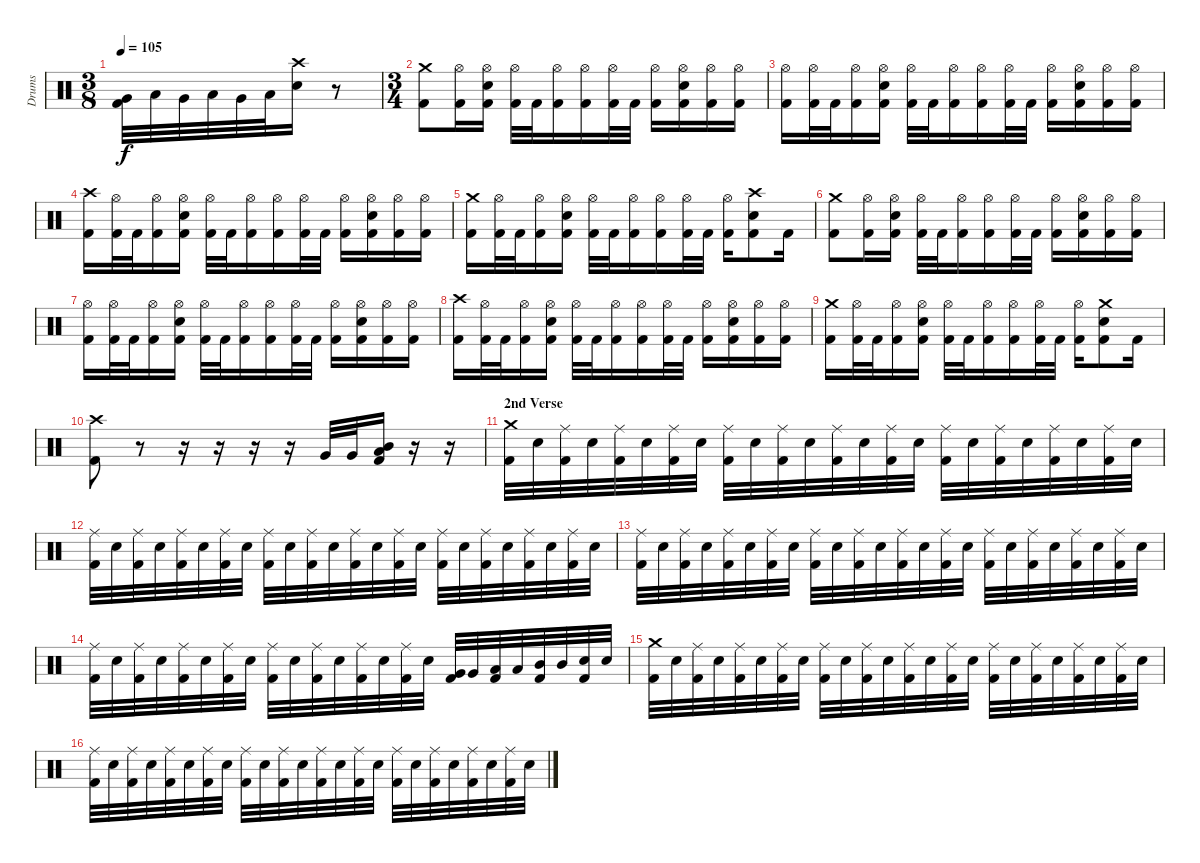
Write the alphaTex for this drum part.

\track ("Drums" "Drums") {instrument percussion}
\staff {score}
\articulation defaults
\ts (3 8)
\tempo 105
\clef neutral
\ks c
("Kick (hit) 2" "Very Low Tom (hit)").32{dy f} "Low Tom (hit)".32 "Very Low Tom (hit)".32 "Low Tom (hit)".32 "Very Low Tom (hit)".32 "Low Tom (hit)".32 ("Electric Snare (hit)" "Crash high (hit)").16 r.8 |
\ts (3 4)
("Kick (hit) 2" "Crash medium (hit)").8 ("Kick (hit) 2" "Hi-Hat (open)").16 ("Kick (hit) 2" "Electric Snare (hit)" "Hi-Hat (open)").16 ("Kick (hit) 2" "Hi-Hat (open)").32 "Kick (hit) 2".32 ("Kick (hit) 2" "Hi-Hat (open)").16 ("Kick (hit) 2" "Hi-Hat (open)").16 ("Kick (hit) 2" "Hi-Hat (open)").32 "Kick (hit) 2".32 ("Kick (hit) 2" "Hi-Hat (open)").16 ("Kick (hit) 2" "Electric Snare (hit)" "Hi-Hat (open)").16 ("Kick (hit) 2" "Hi-Hat (open)").16 ("Kick (hit) 2" "Hi-Hat (open)").16 |
("Kick (hit) 2" "Hi-Hat (open)").16 ("Kick (hit) 2" "Hi-Hat (open)").32 "Kick (hit) 2".32 ("Kick (hit) 2" "Hi-Hat (open)").16 ("Kick (hit) 2" "Electric Snare (hit)" "Hi-Hat (open)").16 ("Kick (hit) 2" "Hi-Hat (open)").32 "Kick (hit) 2".32 ("Kick (hit) 2" "Hi-Hat (open)").16 ("Kick (hit) 2" "Hi-Hat (open)").16 ("Kick (hit) 2" "Hi-Hat (open)").32 "Kick (hit) 2".32 ("Kick (hit) 2" "Hi-Hat (open)").16 ("Kick (hit) 2" "Electric Snare (hit)" "Hi-Hat (open)").16 ("Kick (hit) 2" "Hi-Hat (open)").16 ("Kick (hit) 2" "Hi-Hat (open)").16 |
("Kick (hit) 2" "Crash high (hit)").16 ("Kick (hit) 2" "Hi-Hat (open)").32 "Kick (hit) 2".32 ("Kick (hit) 2" "Hi-Hat (open)").16 ("Kick (hit) 2" "Electric Snare (hit)" "Hi-Hat (open)").16 ("Kick (hit) 2" "Hi-Hat (open)").32 "Kick (hit) 2".32 ("Kick (hit) 2" "Hi-Hat (open)").16 ("Kick (hit) 2" "Hi-Hat (open)").16 ("Kick (hit) 2" "Hi-Hat (open)").32 "Kick (hit) 2".32 ("Kick (hit) 2" "Hi-Hat (open)").16 ("Kick (hit) 2" "Electric Snare (hit)" "Hi-Hat (open)").16 ("Kick (hit) 2" "Hi-Hat (open)").16 ("Kick (hit) 2" "Hi-Hat (open)").16 |
("Kick (hit) 2" "Crash medium (hit)").16 ("Kick (hit) 2" "Hi-Hat (open)").32 "Kick (hit) 2".32 ("Kick (hit) 2" "Hi-Hat (open)").16 ("Kick (hit) 2" "Electric Snare (hit)" "Hi-Hat (open)").16 ("Kick (hit) 2" "Hi-Hat (open)").32 "Kick (hit) 2".32 ("Kick (hit) 2" "Hi-Hat (open)").16 ("Kick (hit) 2" "Hi-Hat (open)").16 ("Kick (hit) 2" "Hi-Hat (open)").32 "Kick (hit) 2".32 ("Kick (hit) 2" "Hi-Hat (open)").16 ("Kick (hit) 2" "Electric Snare (hit)" "Crash high (hit)").8 "Kick (hit) 2".16 |
("Kick (hit) 2" "Crash medium (hit)").8 ("Kick (hit) 2" "Hi-Hat (open)").16 ("Kick (hit) 2" "Electric Snare (hit)" "Hi-Hat (open)").16 ("Kick (hit) 2" "Hi-Hat (open)").32 "Kick (hit) 2".32 ("Kick (hit) 2" "Hi-Hat (open)").16 ("Kick (hit) 2" "Hi-Hat (open)").16 ("Kick (hit) 2" "Hi-Hat (open)").32 "Kick (hit) 2".32 ("Kick (hit) 2" "Hi-Hat (open)").16 ("Kick (hit) 2" "Electric Snare (hit)" "Hi-Hat (open)").16 ("Kick (hit) 2" "Hi-Hat (open)").16 ("Kick (hit) 2" "Hi-Hat (open)").16 |
("Kick (hit) 2" "Hi-Hat (open)").16 ("Kick (hit) 2" "Hi-Hat (open)").32 "Kick (hit) 2".32 ("Kick (hit) 2" "Hi-Hat (open)").16 ("Kick (hit) 2" "Electric Snare (hit)" "Hi-Hat (open)").16 ("Kick (hit) 2" "Hi-Hat (open)").32 "Kick (hit) 2".32 ("Kick (hit) 2" "Hi-Hat (open)").16 ("Kick (hit) 2" "Hi-Hat (open)").16 ("Kick (hit) 2" "Hi-Hat (open)").32 "Kick (hit) 2".32 ("Kick (hit) 2" "Hi-Hat (open)").16 ("Kick (hit) 2" "Electric Snare (hit)" "Hi-Hat (open)").16 ("Kick (hit) 2" "Hi-Hat (open)").16 ("Kick (hit) 2" "Hi-Hat (open)").16 |
("Kick (hit) 2" "Crash high (hit)").16 ("Kick (hit) 2" "Hi-Hat (open)").32 "Kick (hit) 2".32 ("Kick (hit) 2" "Hi-Hat (open)").16 ("Kick (hit) 2" "Electric Snare (hit)" "Hi-Hat (open)").16 ("Kick (hit) 2" "Hi-Hat (open)").32 "Kick (hit) 2".32 ("Kick (hit) 2" "Hi-Hat (open)").16 ("Kick (hit) 2" "Hi-Hat (open)").16 ("Kick (hit) 2" "Hi-Hat (open)").32 "Kick (hit) 2".32 ("Kick (hit) 2" "Hi-Hat (open)").16 ("Kick (hit) 2" "Electric Snare (hit)" "Hi-Hat (open)").16 ("Kick (hit) 2" "Hi-Hat (open)").16 ("Kick (hit) 2" "Hi-Hat (open)").16 |
("Kick (hit) 2" "Crash medium (hit)").16 ("Kick (hit) 2" "Hi-Hat (open)").32 "Kick (hit) 2".32 ("Kick (hit) 2" "Hi-Hat (open)").16 ("Kick (hit) 2" "Electric Snare (hit)" "Hi-Hat (open)").16 ("Kick (hit) 2" "Hi-Hat (open)").32 "Kick (hit) 2".32 ("Kick (hit) 2" "Hi-Hat (open)").16 ("Kick (hit) 2" "Hi-Hat (open)").16 ("Kick (hit) 2" "Hi-Hat (open)").32 "Kick (hit) 2".32 ("Kick (hit) 2" "Hi-Hat (open)").16 ("Kick (hit) 2" "Electric Snare (hit)" "Crash medium (hit)").8 "Kick (hit) 2".16 |
("Kick (hit) 2" "Crash high (hit)").8 r.8 r.16 r.16 r.16 r.16 "Very Low Tom (hit)".32 "Very Low Tom (hit)".32 ("Kick (hit) 2" "Mid Tom (hit)" "Low Tom (hit)").16 r.16 r.16 |
\section ("" "2nd Verse")
("Kick (hit) 2" "Crash medium (hit)").32 "Electric Snare (hit)".32 ("Kick (hit) 2" "Ride (middle)").32 "Electric Snare (hit)".32 ("Kick (hit) 2" "Ride (middle)").32 "Electric Snare (hit)".32 ("Kick (hit) 2" "Ride (middle)").32 "Electric Snare (hit)".32 ("Kick (hit) 2" "Ride (middle)").32 "Electric Snare (hit)".32 ("Kick (hit) 2" "Ride (middle)").32 "Electric Snare (hit)".32 ("Kick (hit) 2" "Ride (middle)").32 "Electric Snare (hit)".32 ("Kick (hit) 2" "Ride (middle)").32 "Electric Snare (hit)".32 ("Kick (hit) 2" "Ride (middle)").32 "Electric Snare (hit)".32 ("Kick (hit) 2" "Ride (middle)").32 "Electric Snare (hit)".32 ("Kick (hit) 2" "Ride (middle)").32 "Electric Snare (hit)".32 ("Kick (hit) 2" "Ride (middle)").32 "Electric Snare (hit)".32 |
("Kick (hit) 2" "Ride (middle)").32 "Electric Snare (hit)".32 ("Kick (hit) 2" "Ride (middle)").32 "Electric Snare (hit)".32 ("Kick (hit) 2" "Ride (middle)").32 "Electric Snare (hit)".32 ("Kick (hit) 2" "Ride (middle)").32 "Electric Snare (hit)".32 ("Kick (hit) 2" "Ride (middle)").32 "Electric Snare (hit)".32 ("Kick (hit) 2" "Ride (middle)").32 "Electric Snare (hit)".32 ("Kick (hit) 2" "Ride (middle)").32 "Electric Snare (hit)".32 ("Kick (hit) 2" "Ride (middle)").32 "Electric Snare (hit)".32 ("Kick (hit) 2" "Ride (middle)").32 "Electric Snare (hit)".32 ("Kick (hit) 2" "Ride (middle)").32 "Electric Snare (hit)".32 ("Kick (hit) 2" "Ride (middle)").32 "Electric Snare (hit)".32 ("Kick (hit) 2" "Ride (middle)").32 "Electric Snare (hit)".32 |
("Kick (hit) 2" "Ride (middle)").32 "Electric Snare (hit)".32 ("Kick (hit) 2" "Ride (middle)").32 "Electric Snare (hit)".32 ("Kick (hit) 2" "Ride (middle)").32 "Electric Snare (hit)".32 ("Kick (hit) 2" "Ride (middle)").32 "Electric Snare (hit)".32 ("Kick (hit) 2" "Ride (middle)").32 "Electric Snare (hit)".32 ("Kick (hit) 2" "Ride (middle)").32 "Electric Snare (hit)".32 ("Kick (hit) 2" "Ride (middle)").32 "Electric Snare (hit)".32 ("Kick (hit) 2" "Ride (middle)").32 "Electric Snare (hit)".32 ("Kick (hit) 2" "Ride (middle)").32 "Electric Snare (hit)".32 ("Kick (hit) 2" "Ride (middle)").32 "Electric Snare (hit)".32 ("Kick (hit) 2" "Ride (middle)").32 "Electric Snare (hit)".32 ("Kick (hit) 2" "Ride (middle)").32 "Electric Snare (hit)".32 |
("Kick (hit) 2" "Ride (middle)").32 "Electric Snare (hit)".32 ("Kick (hit) 2" "Ride (middle)").32 "Electric Snare (hit)".32 ("Kick (hit) 2" "Ride (middle)").32 "Electric Snare (hit)".32 ("Kick (hit) 2" "Ride (middle)").32 "Electric Snare (hit)".32 ("Kick (hit) 2" "Ride (middle)").32 "Electric Snare (hit)".32 ("Kick (hit) 2" "Ride (middle)").32 "Electric Snare (hit)".32 ("Kick (hit) 2" "Ride (middle)").32 "Electric Snare (hit)".32 ("Kick (hit) 2" "Ride (middle)").32 "Electric Snare (hit)".32 ("Kick (hit) 2" "Very Low Tom (hit)").32 "Very Low Tom (hit)".32 ("Kick (hit) 2" "Low Tom (hit)").32 "Low Tom (hit)".32 ("Kick (hit) 2" "Mid Tom (hit)").32 "Mid Tom (hit)".32 ("Kick (hit) 2" "Electric Snare (hit)").32 "Electric Snare (hit)".32 |
("Kick (hit) 2" "Crash medium (hit)").32 "Electric Snare (hit)".32 ("Kick (hit) 2" "Ride (middle)").32 "Electric Snare (hit)".32 ("Kick (hit) 2" "Ride (middle)").32 "Electric Snare (hit)".32 ("Kick (hit) 2" "Ride (middle)").32 "Electric Snare (hit)".32 ("Kick (hit) 2" "Ride (middle)").32 "Electric Snare (hit)".32 ("Kick (hit) 2" "Ride (middle)").32 "Electric Snare (hit)".32 ("Kick (hit) 2" "Ride (middle)").32 "Electric Snare (hit)".32 ("Kick (hit) 2" "Ride (middle)").32 "Electric Snare (hit)".32 ("Kick (hit) 2" "Ride (middle)").32 "Electric Snare (hit)".32 ("Kick (hit) 2" "Ride (middle)").32 "Electric Snare (hit)".32 ("Kick (hit) 2" "Ride (middle)").32 "Electric Snare (hit)".32 ("Kick (hit) 2" "Ride (middle)").32 "Electric Snare (hit)".32 |
("Kick (hit) 2" "Ride (middle)").32 "Electric Snare (hit)".32 ("Kick (hit) 2" "Ride (middle)").32 "Electric Snare (hit)".32 ("Kick (hit) 2" "Ride (middle)").32 "Electric Snare (hit)".32 ("Kick (hit) 2" "Ride (middle)").32 "Electric Snare (hit)".32 ("Kick (hit) 2" "Ride (middle)").32 "Electric Snare (hit)".32 ("Kick (hit) 2" "Ride (middle)").32 "Electric Snare (hit)".32 ("Kick (hit) 2" "Ride (middle)").32 "Electric Snare (hit)".32 ("Kick (hit) 2" "Ride (middle)").32 "Electric Snare (hit)".32 ("Kick (hit) 2" "Ride (middle)").32 "Electric Snare (hit)".32 ("Kick (hit) 2" "Ride (middle)").32 "Electric Snare (hit)".32 ("Kick (hit) 2" "Ride (middle)").32 "Electric Snare (hit)".32 ("Kick (hit) 2" "Ride (middle)").32 "Electric Snare (hit)".32
